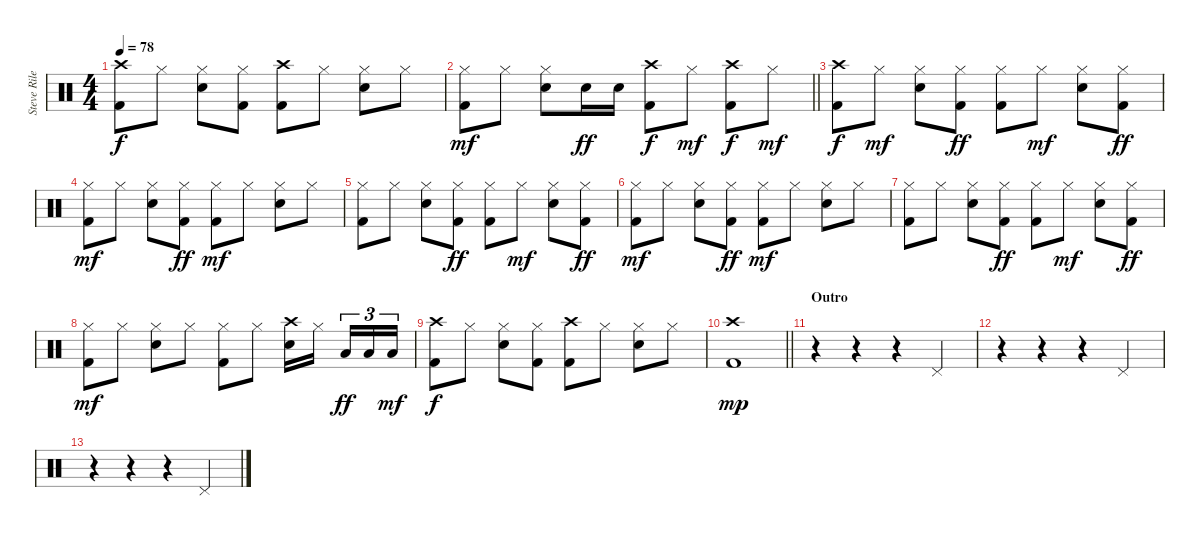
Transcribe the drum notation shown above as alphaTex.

\track ("Steve Riley" "Steve Rile") {instrument percussion}
\staff {score}
\articulation defaults
\ts (4 4)
\tempo 78
\clef neutral
\ks c
("Crash high (hit)" "Kick (hit) 2").8{dy f} "Hi-Hat (closed)".8 ("Hi-Hat (closed)" "Electric Snare (hit)").8 ("Hi-Hat (closed)" "Kick (hit) 2").8 ("Crash high (hit)" "Kick (hit) 2").8 "Hi-Hat (closed)".8 ("Hi-Hat (closed)" "Electric Snare (hit)").8 "Hi-Hat (closed)".8 |
\barLineRight lightlight
("Hi-Hat (closed)" "Kick (hit) 2").8{dy mf} "Hi-Hat (closed)".8 ("Hi-Hat (closed)" "Electric Snare (hit)").8 "Electric Snare (hit)".16{dy ff} "Electric Snare (hit)".16 ("Crash high (hit)" "Kick (hit) 2").8{dy f} "Hi-Hat (closed)".8{dy mf} ("Crash high (hit)" "Kick (hit) 2").8{dy f} "Hi-Hat (closed)".8{dy mf} |
\section ("" "")
("Crash high (hit)" "Kick (hit) 2").8{dy f} "Hi-Hat (closed)".8{dy mf} ("Hi-Hat (closed)" "Electric Snare (hit)").8 ("Hi-Hat (closed)" "Kick (hit) 2").8{dy ff} ("Hi-Hat (closed)" "Kick (hit) 2").8 "Hi-Hat (closed)".8{dy mf} ("Hi-Hat (closed)" "Electric Snare (hit)").8 ("Hi-Hat (closed)" "Kick (hit) 2").8{dy ff} |
("Hi-Hat (closed)" "Kick (hit) 2").8{dy mf} "Hi-Hat (closed)".8 ("Hi-Hat (closed)" "Electric Snare (hit)").8 ("Hi-Hat (closed)" "Kick (hit) 2").8{dy ff} ("Hi-Hat (closed)" "Kick (hit) 2").8{dy mf} "Hi-Hat (closed)".8 ("Hi-Hat (closed)" "Electric Snare (hit)").8 "Hi-Hat (closed)".8 |
("Hi-Hat (closed)" "Kick (hit) 2").8 "Hi-Hat (closed)".8 ("Hi-Hat (closed)" "Electric Snare (hit)").8 ("Hi-Hat (closed)" "Kick (hit) 2").8{dy ff} ("Hi-Hat (closed)" "Kick (hit) 2").8 "Hi-Hat (closed)".8{dy mf} ("Hi-Hat (closed)" "Electric Snare (hit)").8 ("Hi-Hat (closed)" "Kick (hit) 2").8{dy ff} |
("Hi-Hat (closed)" "Kick (hit) 2").8{dy mf} "Hi-Hat (closed)".8 ("Hi-Hat (closed)" "Electric Snare (hit)").8 ("Hi-Hat (closed)" "Kick (hit) 2").8{dy ff} ("Hi-Hat (closed)" "Kick (hit) 2").8{dy mf} "Hi-Hat (closed)".8 ("Hi-Hat (closed)" "Electric Snare (hit)").8 "Hi-Hat (closed)".8 |
("Hi-Hat (closed)" "Kick (hit) 2").8 "Hi-Hat (closed)".8 ("Hi-Hat (closed)" "Electric Snare (hit)").8 ("Hi-Hat (closed)" "Kick (hit) 2").8{dy ff} ("Hi-Hat (closed)" "Kick (hit) 2").8 "Hi-Hat (closed)".8{dy mf} ("Hi-Hat (closed)" "Electric Snare (hit)").8 ("Hi-Hat (closed)" "Kick (hit) 2").8{dy ff} |
("Hi-Hat (closed)" "Kick (hit) 2").8{dy mf} "Hi-Hat (closed)".8 ("Hi-Hat (closed)" "Electric Snare (hit)").8 "Hi-Hat (closed)".8 ("Hi-Hat (closed)" "Kick (hit) 2").8 "Hi-Hat (closed)".8 ("Crash high (hit)" "Electric Snare (hit)").16 "Hi-Hat (closed)".16{beam splitsecondary} "Low Tom (hit)".16{tu (3 2) dy ff} "Low Tom (hit)".16{tu (3 2)} "Low Tom (hit)".16{tu (3 2) dy mf} |
("Crash high (hit)" "Kick (hit) 2").8{dy f} "Hi-Hat (closed)".8 ("Hi-Hat (closed)" "Electric Snare (hit)").8 ("Hi-Hat (closed)" "Kick (hit) 2").8 ("Crash high (hit)" "Kick (hit) 2").8 "Hi-Hat (closed)".8 ("Hi-Hat (closed)" "Electric Snare (hit)").8 "Hi-Hat (closed)".8 |
\barLineRight lightlight
("Crash high (hit)" "Kick (hit) 2").1{dy mp} |
\section ("" "Outro")
r.4 r.4 r.4 "Pedal Hi-Hat (hit)".4 |
r.4 r.4 r.4 "Pedal Hi-Hat (hit)".4 |
r.4 r.4 r.4 "Pedal Hi-Hat (hit)".4
